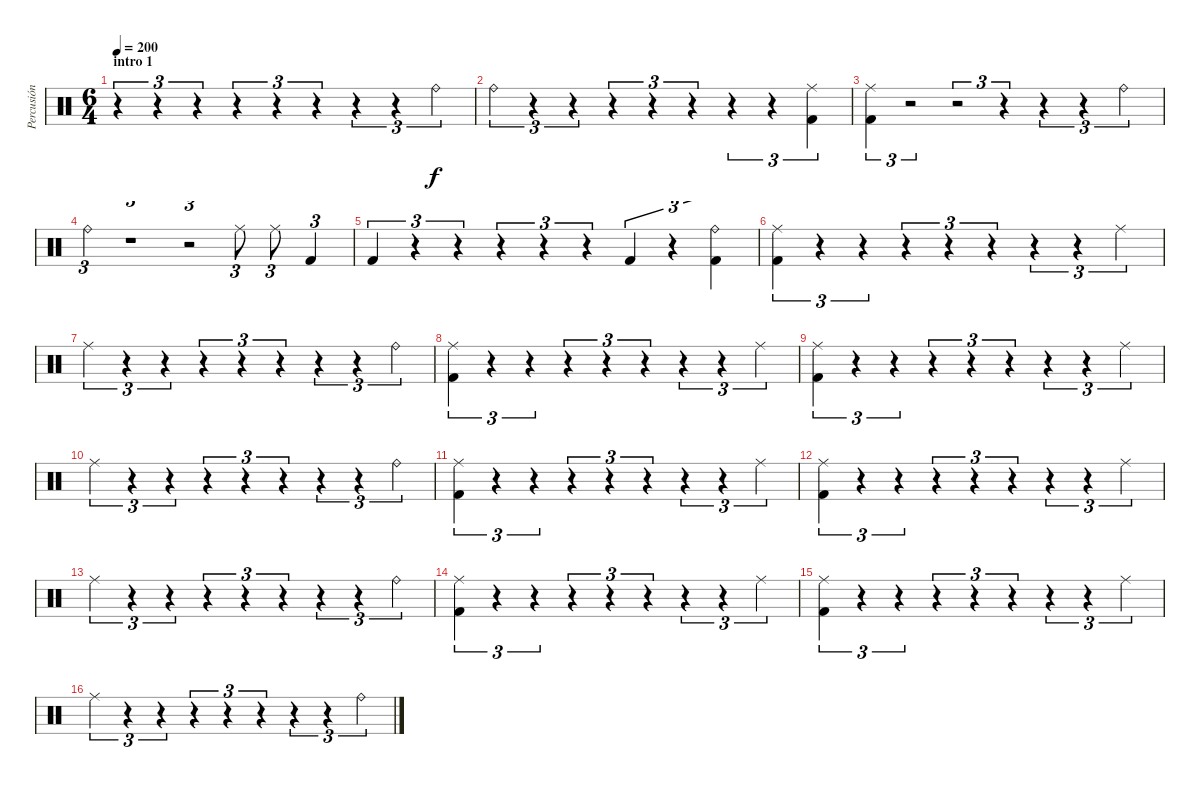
\track ("Percusión" "Percusión") {instrument percussion}
\staff {score}
\articulation defaults
\ts (6 4)
\section ("" "intro 1")
\tempo 200
\clef neutral
\ks c
r.4{tu (3 2) dy f} r.4{tu (3 2)} r.4{tu (3 2)} r.4{tu (3 2)} r.4{tu (3 2)} r.4{tu (3 2)} r.4{tu (3 2)} r.4{tu (3 2)} "Ride (bell)".4{tu (3 2)} |
"Ride (bell)".4{tu (3 2)} r.4{tu (3 2)} r.4{tu (3 2)} r.4{tu (3 2)} r.4{tu (3 2)} r.4{tu (3 2)} r.4{tu (3 2)} r.4{tu (3 2)} ("Ride (middle)" "Kick (hit) 2").4{tu (3 2)} |
("Ride (middle)" "Kick (hit) 2").4{tu (3 2)} r.2{tu (3 2)} r.2{tu (3 2)} r.4{tu (3 2)} r.4{tu (3 2)} r.4{tu (3 2)} "Ride (bell)".4{tu (3 2)} |
"Ride (bell)".4{tu (3 2)} r.1{tu (3 2)} r.2{tu (3 2)} "Ride (middle)".8{tu (3 2)} "Ride (middle)".8{tu (3 2)} "Kick (hit) 2".4{tu (3 2)} |
"Kick (hit) 2".4{tu (3 2)} r.4{tu (3 2)} r.4{tu (3 2)} r.4{tu (3 2)} r.4{tu (3 2)} r.4{tu (3 2)} "Kick (hit) 2".4{tu (3 2)} r.4{tu (3 2)} ("Ride (bell)" "Kick (hit) 2").4{tu (3 2)} |
("Ride (middle)" "Kick (hit) 2").4{tu (3 2)} r.4{tu (3 2)} r.4{tu (3 2)} r.4{tu (3 2)} r.4{tu (3 2)} r.4{tu (3 2)} r.4{tu (3 2)} r.4{tu (3 2)} "Ride (middle)".4{tu (3 2)} |
"Ride (middle)".4{tu (3 2)} r.4{tu (3 2)} r.4{tu (3 2)} r.4{tu (3 2)} r.4{tu (3 2)} r.4{tu (3 2)} r.4{tu (3 2)} r.4{tu (3 2)} "Ride (bell)".4{tu (3 2)} |
("Kick (hit) 2" "Ride (middle)").4{tu (3 2)} r.4{tu (3 2)} r.4{tu (3 2)} r.4{tu (3 2)} r.4{tu (3 2)} r.4{tu (3 2)} r.4{tu (3 2)} r.4{tu (3 2)} "Ride (middle)".4{tu (3 2)} |
("Ride (middle)" "Kick (hit) 2").4{tu (3 2)} r.4{tu (3 2)} r.4{tu (3 2)} r.4{tu (3 2)} r.4{tu (3 2)} r.4{tu (3 2)} r.4{tu (3 2)} r.4{tu (3 2)} "Ride (middle)".4{tu (3 2)} |
"Ride (middle)".4{tu (3 2)} r.4{tu (3 2)} r.4{tu (3 2)} r.4{tu (3 2)} r.4{tu (3 2)} r.4{tu (3 2)} r.4{tu (3 2)} r.4{tu (3 2)} "Ride (bell)".4{tu (3 2)} |
("Kick (hit) 2" "Ride (middle)").4{tu (3 2)} r.4{tu (3 2)} r.4{tu (3 2)} r.4{tu (3 2)} r.4{tu (3 2)} r.4{tu (3 2)} r.4{tu (3 2)} r.4{tu (3 2)} "Ride (middle)".4{tu (3 2)} |
("Ride (middle)" "Kick (hit) 2").4{tu (3 2)} r.4{tu (3 2)} r.4{tu (3 2)} r.4{tu (3 2)} r.4{tu (3 2)} r.4{tu (3 2)} r.4{tu (3 2)} r.4{tu (3 2)} "Ride (middle)".4{tu (3 2)} |
"Ride (middle)".4{tu (3 2)} r.4{tu (3 2)} r.4{tu (3 2)} r.4{tu (3 2)} r.4{tu (3 2)} r.4{tu (3 2)} r.4{tu (3 2)} r.4{tu (3 2)} "Ride (bell)".4{tu (3 2)} |
("Kick (hit) 2" "Ride (middle)").4{tu (3 2)} r.4{tu (3 2)} r.4{tu (3 2)} r.4{tu (3 2)} r.4{tu (3 2)} r.4{tu (3 2)} r.4{tu (3 2)} r.4{tu (3 2)} "Ride (middle)".4{tu (3 2)} |
("Ride (middle)" "Kick (hit) 2").4{tu (3 2)} r.4{tu (3 2)} r.4{tu (3 2)} r.4{tu (3 2)} r.4{tu (3 2)} r.4{tu (3 2)} r.4{tu (3 2)} r.4{tu (3 2)} "Ride (middle)".4{tu (3 2)} |
"Ride (middle)".4{tu (3 2)} r.4{tu (3 2)} r.4{tu (3 2)} r.4{tu (3 2)} r.4{tu (3 2)} r.4{tu (3 2)} r.4{tu (3 2)} r.4{tu (3 2)} "Ride (bell)".4{tu (3 2)}
